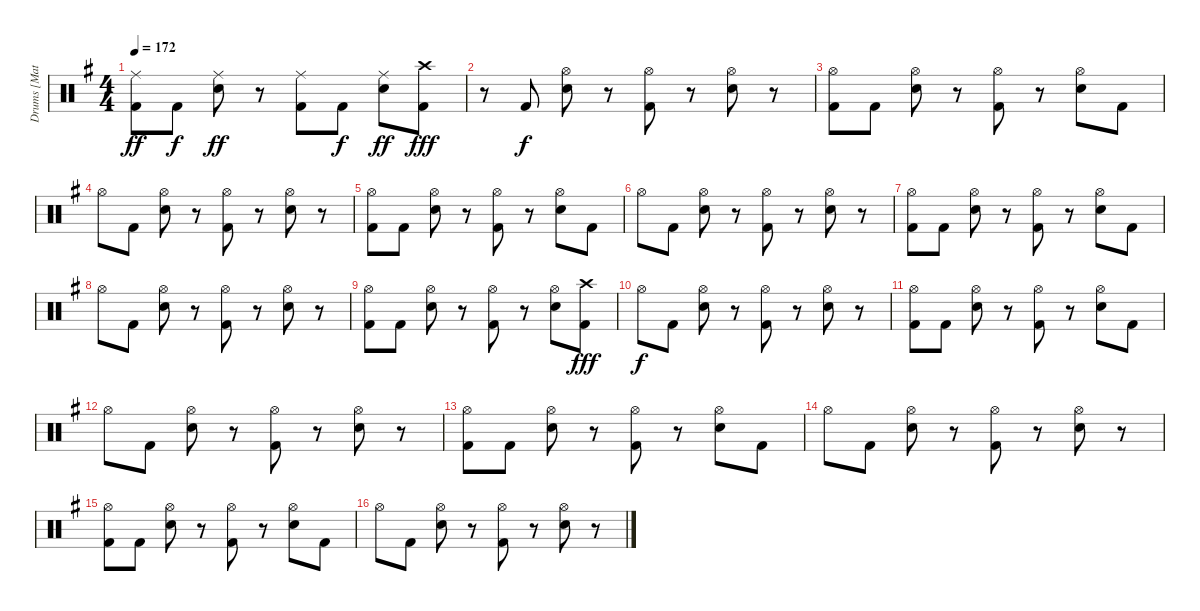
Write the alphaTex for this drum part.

\track ("Drums [Matt]" "Drums [Mat") {instrument percussion}
\staff {score}
\articulation defaults
\ts (4 4)
\tempo 172
\clef neutral
\ks g
("Ride (middle)" "Kick (hit) 2").8{dy ff} "Kick (hit) 2".8{dy f} ("Ride (middle)" "Snare (hit) 2").8{dy ff} r.8 ("Ride (middle)" "Kick (hit) 2").8 "Kick (hit) 2".8{dy f} ("Ride (middle)" "Snare (hit) 2").8{dy ff} ("Kick (hit) 2" "Crash high (hit)").8{dy fff} |
r.8 "Kick (hit) 2".8{dy f} ("Hi-Hat (open)" "Snare (hit) 2").8 r.8 ("Hi-Hat (open)" "Kick (hit) 2").8 r.8 ("Hi-Hat (open)" "Snare (hit) 2").8 r.8 |
("Hi-Hat (open)" "Kick (hit) 2").8 "Kick (hit) 2".8 ("Hi-Hat (open)" "Snare (hit) 2").8 r.8 ("Hi-Hat (open)" "Kick (hit) 2").8 r.8 ("Hi-Hat (open)" "Snare (hit) 2").8 "Kick (hit) 2".8 |
"Hi-Hat (open)".8 "Kick (hit) 2".8 ("Hi-Hat (open)" "Snare (hit) 2").8 r.8 ("Hi-Hat (open)" "Kick (hit) 2").8 r.8 ("Hi-Hat (open)" "Snare (hit) 2").8 r.8 |
("Hi-Hat (open)" "Kick (hit) 2").8 "Kick (hit) 2".8 ("Hi-Hat (open)" "Snare (hit) 2").8 r.8 ("Hi-Hat (open)" "Kick (hit) 2").8 r.8 ("Hi-Hat (open)" "Snare (hit) 2").8 "Kick (hit) 2".8 |
"Hi-Hat (open)".8 "Kick (hit) 2".8 ("Hi-Hat (open)" "Snare (hit) 2").8 r.8 ("Hi-Hat (open)" "Kick (hit) 2").8 r.8 ("Hi-Hat (open)" "Snare (hit) 2").8 r.8 |
("Hi-Hat (open)" "Kick (hit) 2").8 "Kick (hit) 2".8 ("Hi-Hat (open)" "Snare (hit) 2").8 r.8 ("Hi-Hat (open)" "Kick (hit) 2").8 r.8 ("Hi-Hat (open)" "Snare (hit) 2").8 "Kick (hit) 2".8 |
"Hi-Hat (open)".8 "Kick (hit) 2".8 ("Hi-Hat (open)" "Snare (hit) 2").8 r.8 ("Hi-Hat (open)" "Kick (hit) 2").8 r.8 ("Hi-Hat (open)" "Snare (hit) 2").8 r.8 |
("Hi-Hat (open)" "Kick (hit) 2").8 "Kick (hit) 2".8 ("Hi-Hat (open)" "Snare (hit) 2").8 r.8 ("Hi-Hat (open)" "Kick (hit) 2").8 r.8 ("Hi-Hat (open)" "Snare (hit) 2").8 ("Kick (hit) 2" "Crash high (hit)").8{dy fff} |
"Hi-Hat (open)".8{dy f} "Kick (hit) 2".8 ("Hi-Hat (open)" "Snare (hit) 2").8 r.8 ("Hi-Hat (open)" "Kick (hit) 2").8 r.8 ("Hi-Hat (open)" "Snare (hit) 2").8 r.8 |
("Hi-Hat (open)" "Kick (hit) 2").8 "Kick (hit) 2".8 ("Hi-Hat (open)" "Snare (hit) 2").8 r.8 ("Hi-Hat (open)" "Kick (hit) 2").8 r.8 ("Hi-Hat (open)" "Snare (hit) 2").8 "Kick (hit) 2".8 |
"Hi-Hat (open)".8 "Kick (hit) 2".8 ("Hi-Hat (open)" "Snare (hit) 2").8 r.8 ("Hi-Hat (open)" "Kick (hit) 2").8 r.8 ("Hi-Hat (open)" "Snare (hit) 2").8 r.8 |
("Hi-Hat (open)" "Kick (hit) 2").8 "Kick (hit) 2".8 ("Hi-Hat (open)" "Snare (hit) 2").8 r.8 ("Hi-Hat (open)" "Kick (hit) 2").8 r.8 ("Hi-Hat (open)" "Snare (hit) 2").8 "Kick (hit) 2".8 |
"Hi-Hat (open)".8 "Kick (hit) 2".8 ("Hi-Hat (open)" "Snare (hit) 2").8 r.8 ("Hi-Hat (open)" "Kick (hit) 2").8 r.8 ("Hi-Hat (open)" "Snare (hit) 2").8 r.8 |
("Hi-Hat (open)" "Kick (hit) 2").8 "Kick (hit) 2".8 ("Hi-Hat (open)" "Snare (hit) 2").8 r.8 ("Hi-Hat (open)" "Kick (hit) 2").8 r.8 ("Hi-Hat (open)" "Snare (hit) 2").8 "Kick (hit) 2".8 |
"Hi-Hat (open)".8 "Kick (hit) 2".8 ("Hi-Hat (open)" "Snare (hit) 2").8 r.8 ("Hi-Hat (open)" "Kick (hit) 2").8 r.8 ("Hi-Hat (open)" "Snare (hit) 2").8 r.8
